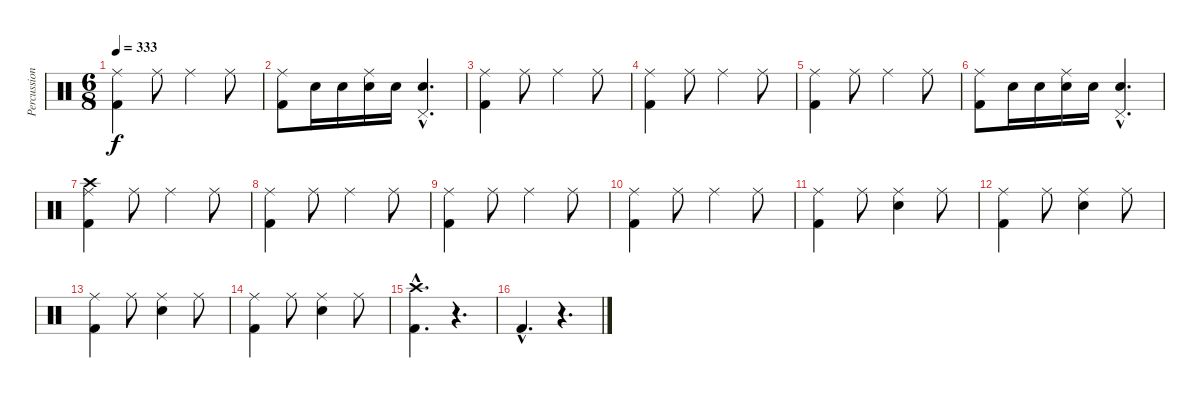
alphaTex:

\track ("Percussion" "Percussion") {instrument percussion}
\staff {score}
\articulation defaults
\ts (6 8)
\tempo 333
\clef neutral
\ks c
("Ride (middle)" "Kick (hit) 2").4{dy f} "Ride (middle)".8 "Ride (middle)".4 "Ride (middle)".8 |
("Ride (middle)" "Kick (hit) 2").8 "Electric Snare (hit)".16 "Electric Snare (hit)".16 ("Ride (middle)" "Electric Snare (hit)").16 "Electric Snare (hit)".16 ("Pedal Hi-Hat (hit)"{hac} "Electric Snare (hit)"{hac}).4{d} |
("Ride (middle)" "Kick (hit) 2").4 "Ride (middle)".8 "Ride (middle)".4 "Ride (middle)".8 |
("Ride (middle)" "Kick (hit) 2").4 "Ride (middle)".8 "Ride (middle)".4 "Ride (middle)".8 |
("Ride (middle)" "Kick (hit) 2").4 "Ride (middle)".8 "Ride (middle)".4 "Ride (middle)".8 |
("Ride (middle)" "Kick (hit) 2").8 "Electric Snare (hit)".16 "Electric Snare (hit)".16 ("Ride (middle)" "Electric Snare (hit)").16 "Electric Snare (hit)".16 ("Pedal Hi-Hat (hit)"{hac} "Electric Snare (hit)"{hac}).4{d} |
("Crash high (hit)" "Ride (middle)" "Kick (hit) 2").4 "Ride (middle)".8 "Ride (middle)".4 "Ride (middle)".8 |
("Ride (middle)" "Kick (hit) 2").4 "Ride (middle)".8 "Ride (middle)".4 "Ride (middle)".8 |
("Ride (middle)" "Kick (hit) 2").4 "Ride (middle)".8 "Ride (middle)".4 "Ride (middle)".8 |
("Ride (middle)" "Kick (hit) 2").4 "Ride (middle)".8 "Ride (middle)".4 "Ride (middle)".8 |
("Ride (middle)" "Kick (hit) 2").4 "Ride (middle)".8 ("Ride (middle)" "Electric Snare (hit)").4 "Ride (middle)".8 |
("Ride (middle)" "Kick (hit) 2").4 "Ride (middle)".8 ("Ride (middle)" "Electric Snare (hit)").4 "Ride (middle)".8 |
("Ride (middle)" "Kick (hit) 2").4 "Ride (middle)".8 ("Ride (middle)" "Electric Snare (hit)").4 "Ride (middle)".8 |
("Ride (middle)" "Kick (hit) 2").4 "Ride (middle)".8 ("Ride (middle)" "Electric Snare (hit)").4 "Ride (middle)".8 |
("Crash high (hit)"{hac} "Kick (hit) 2"{hac}).4{d} r.4{d} |
"Kick (hit) 2"{hac}.4{d} r.4{d}
